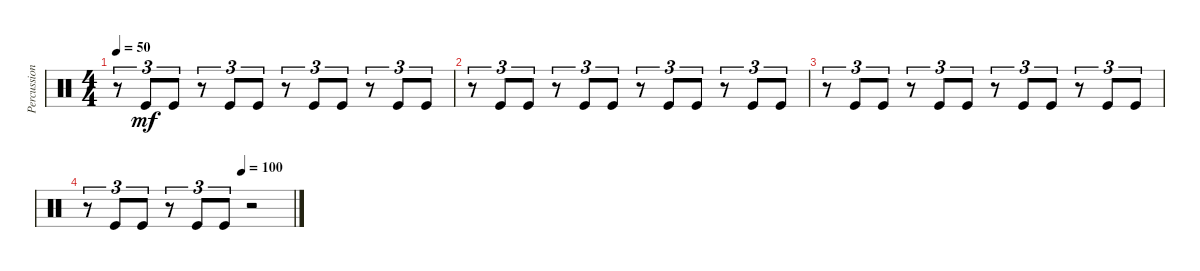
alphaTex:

\track ("Percussions" "Percussion") {instrument percussion}
\staff {score}
\articulation defaults
\ts (4 4)
\tempo 50
\clef neutral
\ks c
r.8{tu (3 2) dy mf} "Kick (hit)".8{tu (3 2)} "Kick (hit)".8{tu (3 2)} r.8{tu (3 2)} "Kick (hit)".8{tu (3 2)} "Kick (hit)".8{tu (3 2)} r.8{tu (3 2)} "Kick (hit)".8{tu (3 2)} "Kick (hit)".8{tu (3 2)} r.8{tu (3 2)} "Kick (hit)".8{tu (3 2)} "Kick (hit)".8{tu (3 2)} |
r.8{tu (3 2)} "Kick (hit)".8{tu (3 2)} "Kick (hit)".8{tu (3 2)} r.8{tu (3 2)} "Kick (hit)".8{tu (3 2)} "Kick (hit)".8{tu (3 2)} r.8{tu (3 2)} "Kick (hit)".8{tu (3 2)} "Kick (hit)".8{tu (3 2)} r.8{tu (3 2)} "Kick (hit)".8{tu (3 2)} "Kick (hit)".8{tu (3 2)} |
r.8{tu (3 2)} "Kick (hit)".8{tu (3 2)} "Kick (hit)".8{tu (3 2)} r.8{tu (3 2)} "Kick (hit)".8{tu (3 2)} "Kick (hit)".8{tu (3 2)} r.8{tu (3 2)} "Kick (hit)".8{tu (3 2)} "Kick (hit)".8{tu (3 2)} r.8{tu (3 2)} "Kick (hit)".8{tu (3 2)} "Kick (hit)".8{tu (3 2)} |
\tempo (100 0.75)
r.8{tu (3 2)} "Kick (hit)".8{tu (3 2)} "Kick (hit)".8{tu (3 2)} r.8{tu (3 2)} "Kick (hit)".8{tu (3 2)} "Kick (hit)".8{tu (3 2)} r.2
